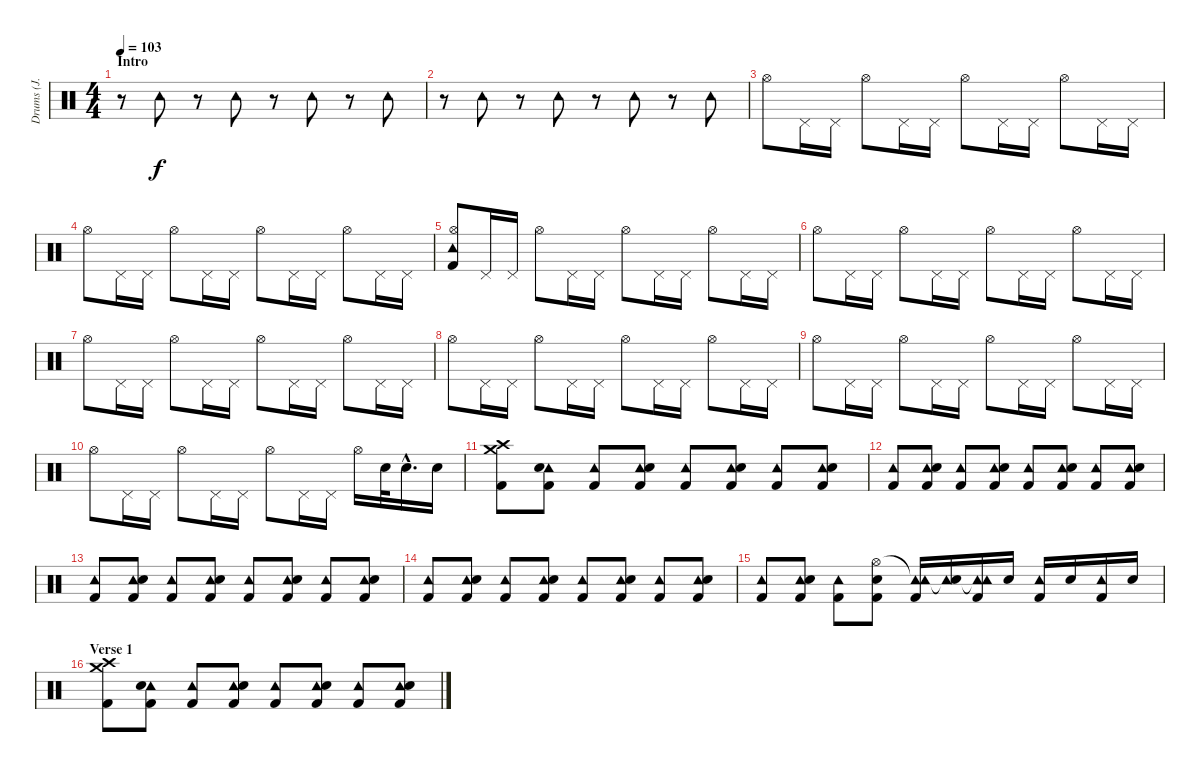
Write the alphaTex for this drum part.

\track ("Drums (J. Cramer)" "Drums (J. ") {instrument percussion}
\staff {score}
\articulation defaults
\ts (4 4)
\section ("" "Intro")
\tempo 103
\clef neutral
\ks c
r.8{dy f} "Tambourine (hit)".8 r.8 "Tambourine (hit)".8 r.8 "Tambourine (hit)".8 r.8 "Tambourine (hit)".8 |
r.8 "Tambourine (hit)".8 r.8 "Tambourine (hit)".8 r.8 "Tambourine (hit)".8 r.8 "Tambourine (hit)".8 |
"Hi-Hat (open)".8 "Pedal Hi-Hat (hit)".16 "Pedal Hi-Hat (hit)".16 "Hi-Hat (open)".8 "Pedal Hi-Hat (hit)".16 "Pedal Hi-Hat (hit)".16 "Hi-Hat (open)".8 "Pedal Hi-Hat (hit)".16 "Pedal Hi-Hat (hit)".16 "Hi-Hat (open)".8 "Pedal Hi-Hat (hit)".16 "Pedal Hi-Hat (hit)".16 |
"Hi-Hat (open)".8 "Pedal Hi-Hat (hit)".16 "Pedal Hi-Hat (hit)".16 "Hi-Hat (open)".8 "Pedal Hi-Hat (hit)".16 "Pedal Hi-Hat (hit)".16 "Hi-Hat (open)".8 "Pedal Hi-Hat (hit)".16 "Pedal Hi-Hat (hit)".16 "Hi-Hat (open)".8 "Pedal Hi-Hat (hit)".16 "Pedal Hi-Hat (hit)".16 |
("Hi-Hat (open)" "Tambourine (hit)" "Kick (hit) 2").8 "Pedal Hi-Hat (hit)".16 "Pedal Hi-Hat (hit)".16 "Hi-Hat (open)".8 "Pedal Hi-Hat (hit)".16 "Pedal Hi-Hat (hit)".16 "Hi-Hat (open)".8 "Pedal Hi-Hat (hit)".16 "Pedal Hi-Hat (hit)".16 "Hi-Hat (open)".8 "Pedal Hi-Hat (hit)".16 "Pedal Hi-Hat (hit)".16 |
"Hi-Hat (open)".8 "Pedal Hi-Hat (hit)".16 "Pedal Hi-Hat (hit)".16 "Hi-Hat (open)".8 "Pedal Hi-Hat (hit)".16 "Pedal Hi-Hat (hit)".16 "Hi-Hat (open)".8 "Pedal Hi-Hat (hit)".16 "Pedal Hi-Hat (hit)".16 "Hi-Hat (open)".8 "Pedal Hi-Hat (hit)".16 "Pedal Hi-Hat (hit)".16 |
"Hi-Hat (open)".8 "Pedal Hi-Hat (hit)".16 "Pedal Hi-Hat (hit)".16 "Hi-Hat (open)".8 "Pedal Hi-Hat (hit)".16 "Pedal Hi-Hat (hit)".16 "Hi-Hat (open)".8 "Pedal Hi-Hat (hit)".16 "Pedal Hi-Hat (hit)".16 "Hi-Hat (open)".8 "Pedal Hi-Hat (hit)".16 "Pedal Hi-Hat (hit)".16 |
"Hi-Hat (open)".8 "Pedal Hi-Hat (hit)".16 "Pedal Hi-Hat (hit)".16 "Hi-Hat (open)".8 "Pedal Hi-Hat (hit)".16 "Pedal Hi-Hat (hit)".16 "Hi-Hat (open)".8 "Pedal Hi-Hat (hit)".16 "Pedal Hi-Hat (hit)".16 "Hi-Hat (open)".8 "Pedal Hi-Hat (hit)".16 "Pedal Hi-Hat (hit)".16 |
"Hi-Hat (open)".8 "Pedal Hi-Hat (hit)".16 "Pedal Hi-Hat (hit)".16 "Hi-Hat (open)".8 "Pedal Hi-Hat (hit)".16 "Pedal Hi-Hat (hit)".16 "Hi-Hat (open)".8 "Pedal Hi-Hat (hit)".16 "Pedal Hi-Hat (hit)".16 "Hi-Hat (open)".8 "Pedal Hi-Hat (hit)".16 "Pedal Hi-Hat (hit)".16 |
"Hi-Hat (open)".8 "Pedal Hi-Hat (hit)".16 "Pedal Hi-Hat (hit)".16 "Hi-Hat (open)".8 "Pedal Hi-Hat (hit)".16 "Pedal Hi-Hat (hit)".16 "Hi-Hat (open)".8 "Pedal Hi-Hat (hit)".16 "Pedal Hi-Hat (hit)".16 "Hi-Hat (open)".16 "Electric Snare (hit)".32 "Electric Snare (hit)"{hac}.16{d} "Electric Snare (hit)".16 |
("Kick (hit) 2" "Crash high (hit)" "Crash medium (hit)").8 ("Tambourine (hit)" "Electric Snare (hit)" "Kick (hit) 2").8 ("Tambourine (hit)" "Kick (hit) 2").8 ("Tambourine (hit)" "Electric Snare (hit)" "Kick (hit) 2").8 ("Tambourine (hit)" "Kick (hit) 2").8 ("Tambourine (hit)" "Electric Snare (hit)" "Kick (hit) 2").8 ("Tambourine (hit)" "Kick (hit) 2").8 ("Tambourine (hit)" "Electric Snare (hit)" "Kick (hit) 2").8 |
("Tambourine (hit)" "Kick (hit) 2").8 ("Tambourine (hit)" "Electric Snare (hit)" "Kick (hit) 2").8 ("Tambourine (hit)" "Kick (hit) 2").8 ("Tambourine (hit)" "Electric Snare (hit)" "Kick (hit) 2").8 ("Tambourine (hit)" "Kick (hit) 2").8 ("Tambourine (hit)" "Electric Snare (hit)" "Kick (hit) 2").8 ("Tambourine (hit)" "Kick (hit) 2").8 ("Tambourine (hit)" "Electric Snare (hit)" "Kick (hit) 2").8 |
("Tambourine (hit)" "Kick (hit) 2").8 ("Tambourine (hit)" "Electric Snare (hit)" "Kick (hit) 2").8 ("Tambourine (hit)" "Kick (hit) 2").8 ("Tambourine (hit)" "Electric Snare (hit)" "Kick (hit) 2").8 ("Tambourine (hit)" "Kick (hit) 2").8 ("Tambourine (hit)" "Electric Snare (hit)" "Kick (hit) 2").8 ("Tambourine (hit)" "Kick (hit) 2").8 ("Tambourine (hit)" "Electric Snare (hit)" "Kick (hit) 2").8 |
("Tambourine (hit)" "Kick (hit) 2").8 ("Tambourine (hit)" "Electric Snare (hit)" "Kick (hit) 2").8 ("Tambourine (hit)" "Kick (hit) 2").8 ("Tambourine (hit)" "Electric Snare (hit)" "Kick (hit) 2").8 ("Tambourine (hit)" "Kick (hit) 2").8 ("Tambourine (hit)" "Electric Snare (hit)" "Kick (hit) 2").8 ("Tambourine (hit)" "Kick (hit) 2").8 ("Tambourine (hit)" "Electric Snare (hit)" "Kick (hit) 2").8 |
("Tambourine (hit)" "Kick (hit) 2").8 ("Tambourine (hit)" "Electric Snare (hit)" "Kick (hit) 2").8 ("Tambourine (hit)" "Kick (hit) 2").8 ("Hi-Hat (open)" "Electric Snare (hit)" "Kick (hit) 2").8 ("Tambourine (hit)"{t} "Tambourine (hit)" "Kick (hit) 2").16 ("Tambourine (hit)"{t} "Electric Snare (hit)").16 ("Tambourine (hit)"{t} "Tambourine (hit)" "Kick (hit) 2").16 "Electric Snare (hit)".16 ("Tambourine (hit)" "Kick (hit) 2").16 "Electric Snare (hit)".16 ("Tambourine (hit)" "Kick (hit) 2").16 "Electric Snare (hit)".16 |
\section ("" "Verse 1")
("Kick (hit) 2" "Crash medium (hit)" "Crash high (hit)").8 ("Tambourine (hit)" "Electric Snare (hit)" "Kick (hit) 2").8 ("Tambourine (hit)" "Kick (hit) 2").8 ("Tambourine (hit)" "Electric Snare (hit)" "Kick (hit) 2").8 ("Tambourine (hit)" "Kick (hit) 2").8 ("Tambourine (hit)" "Electric Snare (hit)" "Kick (hit) 2").8 ("Tambourine (hit)" "Kick (hit) 2").8 ("Tambourine (hit)" "Electric Snare (hit)" "Kick (hit) 2").8
